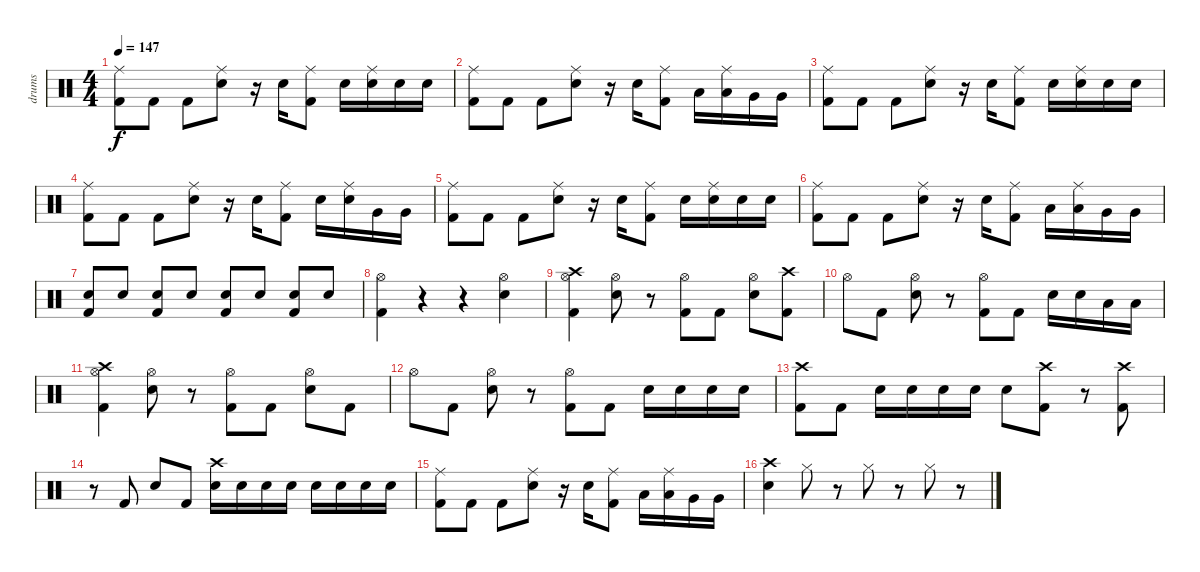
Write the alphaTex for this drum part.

\track ("drums" "drums") {instrument percussion}
\staff {score}
\articulation defaults
\ts (4 4)
\tempo 147
\clef neutral
\ks c
("Ride (middle)" "Kick (hit) 2").8{dy f} "Kick (hit) 2".8 "Kick (hit) 2".8 ("Ride (middle)" "Electric Snare (hit)").8 r.16 "Electric Snare (hit)".16 ("Ride (middle)" "Kick (hit) 2").8 "Electric Snare (hit)".16 ("Ride (middle)" "Electric Snare (hit)").16 "Electric Snare (hit)".16 "Electric Snare (hit)".16 |
("Ride (middle)" "Kick (hit) 2").8 "Kick (hit) 2".8 "Kick (hit) 2".8 ("Ride (middle)" "Electric Snare (hit)").8 r.16 "Electric Snare (hit)".16 ("Ride (middle)" "Kick (hit) 2").8 "Low Tom (hit)".16 ("Ride (middle)" "Low Tom (hit)").16 "Very Low Tom (hit)".16 "Very Low Tom (hit)".16 |
("Ride (middle)" "Kick (hit) 2").8 "Kick (hit) 2".8 "Kick (hit) 2".8 ("Ride (middle)" "Electric Snare (hit)").8 r.16 "Electric Snare (hit)".16 ("Ride (middle)" "Kick (hit) 2").8 "Electric Snare (hit)".16 ("Ride (middle)" "Electric Snare (hit)").16 "Electric Snare (hit)".16 "Electric Snare (hit)".16 |
("Ride (middle)" "Kick (hit) 2").8 "Kick (hit) 2".8 "Kick (hit) 2".8 ("Ride (middle)" "Electric Snare (hit)").8 r.16 "Electric Snare (hit)".16 ("Ride (middle)" "Kick (hit) 2").8 "Electric Snare (hit)".16 ("Ride (middle)" "Electric Snare (hit)").16 "Very Low Tom (hit)".16 "Very Low Tom (hit)".16 |
("Ride (middle)" "Kick (hit) 2").8 "Kick (hit) 2".8 "Kick (hit) 2".8 ("Ride (middle)" "Electric Snare (hit)").8 r.16 "Electric Snare (hit)".16 ("Ride (middle)" "Kick (hit) 2").8 "Electric Snare (hit)".16 ("Ride (middle)" "Electric Snare (hit)").16 "Electric Snare (hit)".16 "Electric Snare (hit)".16 |
("Ride (middle)" "Kick (hit) 2").8 "Kick (hit) 2".8 "Kick (hit) 2".8 ("Ride (middle)" "Electric Snare (hit)").8 r.16 "Electric Snare (hit)".16 ("Ride (middle)" "Kick (hit) 2").8 "Low Tom (hit)".16 ("Ride (middle)" "Low Tom (hit)").16 "Very Low Tom (hit)".16 "Very Low Tom (hit)".16 |
("Electric Snare (hit)" "Kick (hit) 2").8 "Electric Snare (hit)".8 ("Electric Snare (hit)" "Kick (hit) 2").8 "Electric Snare (hit)".8 ("Electric Snare (hit)" "Kick (hit) 2").8 "Electric Snare (hit)".8 ("Electric Snare (hit)" "Kick (hit) 2").8 "Electric Snare (hit)".8 |
("Hi-Hat (open)" "Kick (hit) 2").4 r.4 r.4 ("Hi-Hat (open)" "Electric Snare (hit)").4 |
("Crash high (hit)" "Hi-Hat (open)" "Kick (hit) 2").4 ("Hi-Hat (open)" "Electric Snare (hit)").8 r.8 ("Hi-Hat (open)" "Kick (hit) 2").8 "Kick (hit) 2".8 ("Hi-Hat (open)" "Electric Snare (hit)").8 ("Crash high (hit)" "Kick (hit) 2").8 |
"Hi-Hat (open)".8 "Kick (hit) 2".8 ("Hi-Hat (open)" "Electric Snare (hit)").8 r.8 ("Hi-Hat (open)" "Kick (hit) 2").8 "Kick (hit) 2".8 "Electric Snare (hit)".16 "Electric Snare (hit)".16 "Low Tom (hit)".16 "Low Tom (hit)".16 |
("Crash high (hit)" "Hi-Hat (open)" "Kick (hit) 2").4 ("Hi-Hat (open)" "Electric Snare (hit)").8 r.8 ("Hi-Hat (open)" "Kick (hit) 2").8 "Kick (hit) 2".8 ("Hi-Hat (open)" "Electric Snare (hit)").8 "Kick (hit) 2".8 |
"Hi-Hat (open)".8 "Kick (hit) 2".8 ("Hi-Hat (open)" "Electric Snare (hit)").8 r.8 ("Hi-Hat (open)" "Kick (hit) 2").8 "Kick (hit) 2".8 "Electric Snare (hit)".16 "Electric Snare (hit)".16 "Electric Snare (hit)".16 "Electric Snare (hit)".16 |
("Crash high (hit)" "Kick (hit) 2").8 "Kick (hit) 2".8 "Electric Snare (hit)".16 "Electric Snare (hit)".16 "Electric Snare (hit)".16 "Electric Snare (hit)".16 "Electric Snare (hit)".8 ("Crash high (hit)" "Kick (hit) 2").8 r.8 ("Crash high (hit)" "Kick (hit) 2").8 |
r.8 "Kick (hit) 2".8 "Electric Snare (hit)".8 "Kick (hit) 2".8 ("Crash high (hit)" "Electric Snare (hit)").16 "Electric Snare (hit)".16 "Electric Snare (hit)".16 "Electric Snare (hit)".16 "Electric Snare (hit)".16 "Electric Snare (hit)".16 "Electric Snare (hit)".16 "Electric Snare (hit)".16 |
("Ride (middle)" "Kick (hit) 2").8 "Kick (hit) 2".8 "Kick (hit) 2".8 ("Ride (middle)" "Electric Snare (hit)").8 r.16 "Electric Snare (hit)".16 ("Ride (middle)" "Kick (hit) 2").8 "Low Tom (hit)".16 ("Ride (middle)" "Low Tom (hit)").16 "Very Low Tom (hit)".16 "Very Low Tom (hit)".16 |
("Crash high (hit)" "Electric Snare (hit)").4 "Hi-Hat (closed)".8 r.8 "Hi-Hat (closed)".8 r.8 "Hi-Hat (closed)".8 r.8
